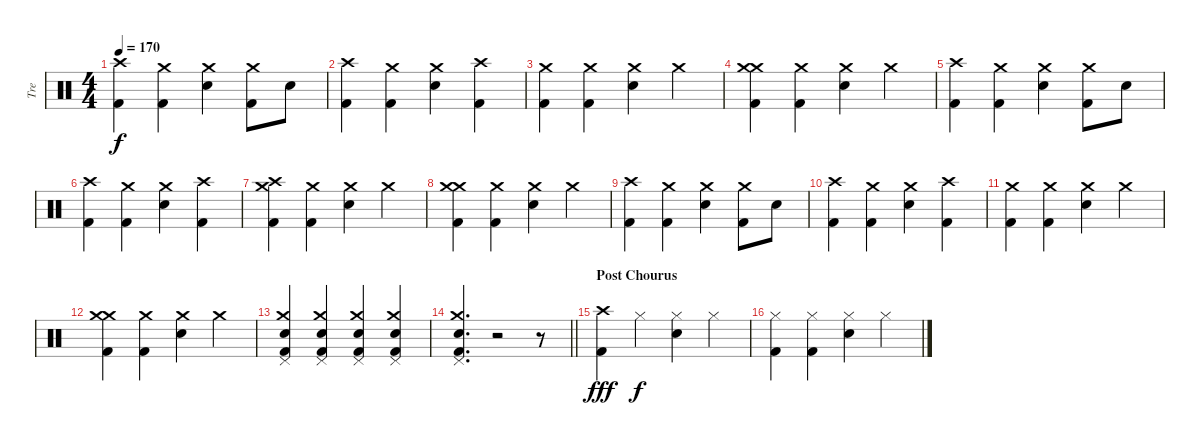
\track ("Tre" "Tre") {instrument percussion}
\staff {score}
\articulation defaults
\ts (4 4)
\tempo 170
\clef neutral
\ks c
("Crash high (hit)" "Kick (hit) 2").4{dy f} ("Crash medium (hit)" "Kick (hit) 2").4 ("Crash medium (hit)" "Snare (hit) 2").4 ("Crash medium (hit)" "Kick (hit) 2").8 "Snare (hit) 2".8 |
("Crash high (hit)" "Kick (hit) 2").4 ("Crash medium (hit)" "Kick (hit) 2").4 ("Crash medium (hit)" "Snare (hit) 2").4 ("Crash high (hit)" "Kick (hit) 2").4 |
("Crash medium (hit)" "Kick (hit) 2").4 ("Crash medium (hit)" "Kick (hit) 2").4 ("Crash medium (hit)" "Snare (hit) 2").4 "Crash medium (hit)".4 |
("Crash medium (hit)" "Crash medium (hit)" "Kick (hit) 2").4 ("Crash medium (hit)" "Kick (hit) 2").4 ("Crash medium (hit)" "Snare (hit) 2").4 "Crash medium (hit)".4 |
("Crash high (hit)" "Kick (hit) 2").4 ("Crash medium (hit)" "Kick (hit) 2").4 ("Crash medium (hit)" "Snare (hit) 2").4 ("Crash medium (hit)" "Kick (hit) 2").8 "Snare (hit) 2".8 |
("Crash high (hit)" "Kick (hit) 2").4 ("Crash medium (hit)" "Kick (hit) 2").4 ("Crash medium (hit)" "Snare (hit) 2").4 ("Crash high (hit)" "Kick (hit) 2").4 |
("Crash medium (hit)" "Crash high (hit)" "Kick (hit) 2").4 ("Crash medium (hit)" "Kick (hit) 2").4 ("Crash medium (hit)" "Snare (hit) 2").4 "Crash medium (hit)".4 |
("Crash medium (hit)" "Crash medium (hit)" "Kick (hit) 2").4 ("Crash medium (hit)" "Kick (hit) 2").4 ("Crash medium (hit)" "Snare (hit) 2").4 "Crash medium (hit)".4 |
("Crash high (hit)" "Kick (hit) 2").4 ("Crash medium (hit)" "Kick (hit) 2").4 ("Crash medium (hit)" "Snare (hit) 2").4 ("Crash medium (hit)" "Kick (hit) 2").8 "Snare (hit) 2".8 |
("Crash high (hit)" "Kick (hit) 2").4 ("Crash medium (hit)" "Kick (hit) 2").4 ("Crash medium (hit)" "Snare (hit) 2").4 ("Crash high (hit)" "Kick (hit) 2").4 |
("Crash medium (hit)" "Kick (hit) 2").4 ("Crash medium (hit)" "Kick (hit) 2").4 ("Crash medium (hit)" "Snare (hit) 2").4 "Crash medium (hit)".4 |
("Crash medium (hit)" "Crash medium (hit)" "Kick (hit) 2").4 ("Crash medium (hit)" "Kick (hit) 2").4 ("Crash medium (hit)" "Snare (hit) 2").4 "Crash medium (hit)".4 |
("Crash medium (hit)" "Snare (hit) 2" "Pedal Hi-Hat (hit)" "Kick (hit) 2").4 ("Crash medium (hit)" "Snare (hit) 2" "Pedal Hi-Hat (hit)" "Kick (hit) 2").4 ("Crash medium (hit)" "Snare (hit) 2" "Pedal Hi-Hat (hit)" "Kick (hit) 2").4 ("Crash medium (hit)" "Snare (hit) 2" "Pedal Hi-Hat (hit)" "Kick (hit) 2").4 |
\barLineRight lightlight
("Crash medium (hit)" "Snare (hit) 2" "Pedal Hi-Hat (hit)" "Kick (hit) 2").4{d} r.2 r.8 |
\section ("" "Post Chourus")
("Crash high (hit)" "Kick (hit) 2").4{dy fff} "Hi-Hat (closed)".4{dy f} ("Hi-Hat (closed)" "Snare (hit) 2").4 "Hi-Hat (closed)".4 |
("Hi-Hat (closed)" "Kick (hit) 2").4 ("Hi-Hat (closed)" "Kick (hit) 2").4 ("Hi-Hat (closed)" "Snare (hit) 2").4 "Hi-Hat (closed)".4
